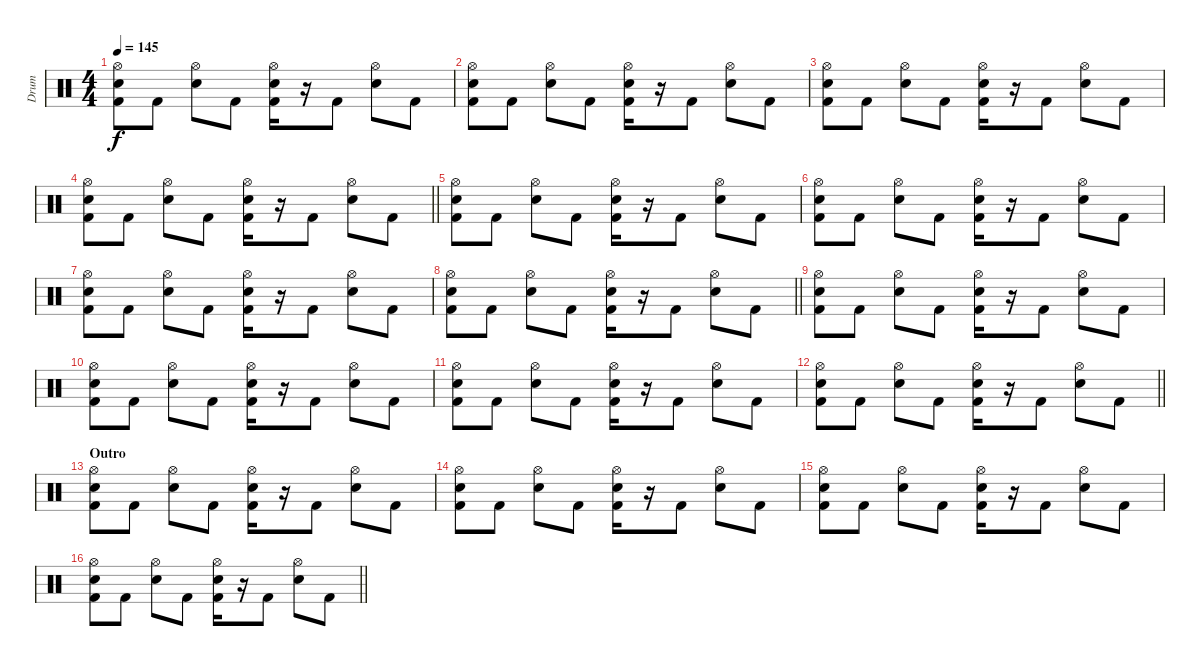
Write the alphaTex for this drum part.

\track ("Drum" "Drum") {instrument percussion}
\staff {score}
\articulation defaults
\ts (4 4)
\tempo 145
\clef neutral
\ks c
("Hi-Hat (open)" "Electric Snare (hit)" "Kick (hit) 2").8{dy f} "Kick (hit) 2".8 ("Hi-Hat (open)" "Electric Snare (hit)").8 "Kick (hit) 2".8 ("Hi-Hat (open)" "Electric Snare (hit)" "Kick (hit) 2").16 r.16 "Kick (hit) 2".8 ("Hi-Hat (open)" "Electric Snare (hit)").8 "Kick (hit) 2".8 |
("Hi-Hat (open)" "Electric Snare (hit)" "Kick (hit) 2").8 "Kick (hit) 2".8 ("Hi-Hat (open)" "Electric Snare (hit)").8 "Kick (hit) 2".8 ("Hi-Hat (open)" "Electric Snare (hit)" "Kick (hit) 2").16 r.16 "Kick (hit) 2".8 ("Hi-Hat (open)" "Electric Snare (hit)").8 "Kick (hit) 2".8 |
("Hi-Hat (open)" "Electric Snare (hit)" "Kick (hit) 2").8 "Kick (hit) 2".8 ("Hi-Hat (open)" "Electric Snare (hit)").8 "Kick (hit) 2".8 ("Hi-Hat (open)" "Electric Snare (hit)" "Kick (hit) 2").16 r.16 "Kick (hit) 2".8 ("Hi-Hat (open)" "Electric Snare (hit)").8 "Kick (hit) 2".8 |
\barLineRight lightlight
("Hi-Hat (open)" "Electric Snare (hit)" "Kick (hit) 2").8 "Kick (hit) 2".8 ("Hi-Hat (open)" "Electric Snare (hit)").8 "Kick (hit) 2".8 ("Hi-Hat (open)" "Electric Snare (hit)" "Kick (hit) 2").16 r.16 "Kick (hit) 2".8 ("Hi-Hat (open)" "Electric Snare (hit)").8 "Kick (hit) 2".8 |
("Hi-Hat (open)" "Electric Snare (hit)" "Kick (hit) 2").8 "Kick (hit) 2".8 ("Hi-Hat (open)" "Electric Snare (hit)").8 "Kick (hit) 2".8 ("Hi-Hat (open)" "Electric Snare (hit)" "Kick (hit) 2").16 r.16 "Kick (hit) 2".8 ("Hi-Hat (open)" "Electric Snare (hit)").8 "Kick (hit) 2".8 |
("Hi-Hat (open)" "Electric Snare (hit)" "Kick (hit) 2").8 "Kick (hit) 2".8 ("Hi-Hat (open)" "Electric Snare (hit)").8 "Kick (hit) 2".8 ("Hi-Hat (open)" "Electric Snare (hit)" "Kick (hit) 2").16 r.16 "Kick (hit) 2".8 ("Hi-Hat (open)" "Electric Snare (hit)").8 "Kick (hit) 2".8 |
("Hi-Hat (open)" "Electric Snare (hit)" "Kick (hit) 2").8 "Kick (hit) 2".8 ("Hi-Hat (open)" "Electric Snare (hit)").8 "Kick (hit) 2".8 ("Hi-Hat (open)" "Electric Snare (hit)" "Kick (hit) 2").16 r.16 "Kick (hit) 2".8 ("Hi-Hat (open)" "Electric Snare (hit)").8 "Kick (hit) 2".8 |
\barLineRight lightlight
("Hi-Hat (open)" "Electric Snare (hit)" "Kick (hit) 2").8 "Kick (hit) 2".8 ("Hi-Hat (open)" "Electric Snare (hit)").8 "Kick (hit) 2".8 ("Hi-Hat (open)" "Electric Snare (hit)" "Kick (hit) 2").16 r.16 "Kick (hit) 2".8 ("Hi-Hat (open)" "Electric Snare (hit)").8 "Kick (hit) 2".8 |
("Hi-Hat (open)" "Electric Snare (hit)" "Kick (hit) 2").8 "Kick (hit) 2".8 ("Hi-Hat (open)" "Electric Snare (hit)").8 "Kick (hit) 2".8 ("Hi-Hat (open)" "Electric Snare (hit)" "Kick (hit) 2").16 r.16 "Kick (hit) 2".8 ("Hi-Hat (open)" "Electric Snare (hit)").8 "Kick (hit) 2".8 |
("Hi-Hat (open)" "Electric Snare (hit)" "Kick (hit) 2").8 "Kick (hit) 2".8 ("Hi-Hat (open)" "Electric Snare (hit)").8 "Kick (hit) 2".8 ("Hi-Hat (open)" "Electric Snare (hit)" "Kick (hit) 2").16 r.16 "Kick (hit) 2".8 ("Hi-Hat (open)" "Electric Snare (hit)").8 "Kick (hit) 2".8 |
("Hi-Hat (open)" "Electric Snare (hit)" "Kick (hit) 2").8 "Kick (hit) 2".8 ("Hi-Hat (open)" "Electric Snare (hit)").8 "Kick (hit) 2".8 ("Hi-Hat (open)" "Electric Snare (hit)" "Kick (hit) 2").16 r.16 "Kick (hit) 2".8 ("Hi-Hat (open)" "Electric Snare (hit)").8 "Kick (hit) 2".8 |
\barLineRight lightlight
("Hi-Hat (open)" "Electric Snare (hit)" "Kick (hit) 2").8 "Kick (hit) 2".8 ("Hi-Hat (open)" "Electric Snare (hit)").8 "Kick (hit) 2".8 ("Hi-Hat (open)" "Electric Snare (hit)" "Kick (hit) 2").16 r.16 "Kick (hit) 2".8 ("Hi-Hat (open)" "Electric Snare (hit)").8 "Kick (hit) 2".8 |
\section ("" "Outro")
("Hi-Hat (open)" "Electric Snare (hit)" "Kick (hit) 2").8 "Kick (hit) 2".8 ("Hi-Hat (open)" "Electric Snare (hit)").8 "Kick (hit) 2".8 ("Hi-Hat (open)" "Electric Snare (hit)" "Kick (hit) 2").16 r.16 "Kick (hit) 2".8 ("Hi-Hat (open)" "Electric Snare (hit)").8 "Kick (hit) 2".8 |
("Hi-Hat (open)" "Electric Snare (hit)" "Kick (hit) 2").8 "Kick (hit) 2".8 ("Hi-Hat (open)" "Electric Snare (hit)").8 "Kick (hit) 2".8 ("Hi-Hat (open)" "Electric Snare (hit)" "Kick (hit) 2").16 r.16 "Kick (hit) 2".8 ("Hi-Hat (open)" "Electric Snare (hit)").8 "Kick (hit) 2".8 |
("Hi-Hat (open)" "Electric Snare (hit)" "Kick (hit) 2").8 "Kick (hit) 2".8 ("Hi-Hat (open)" "Electric Snare (hit)").8 "Kick (hit) 2".8 ("Hi-Hat (open)" "Electric Snare (hit)" "Kick (hit) 2").16 r.16 "Kick (hit) 2".8 ("Hi-Hat (open)" "Electric Snare (hit)").8 "Kick (hit) 2".8 |
\barLineRight lightlight
("Hi-Hat (open)" "Electric Snare (hit)" "Kick (hit) 2").8 "Kick (hit) 2".8 ("Hi-Hat (open)" "Electric Snare (hit)").8 "Kick (hit) 2".8 ("Hi-Hat (open)" "Electric Snare (hit)" "Kick (hit) 2").16 r.16 "Kick (hit) 2".8 ("Hi-Hat (open)" "Electric Snare (hit)").8 "Kick (hit) 2".8
